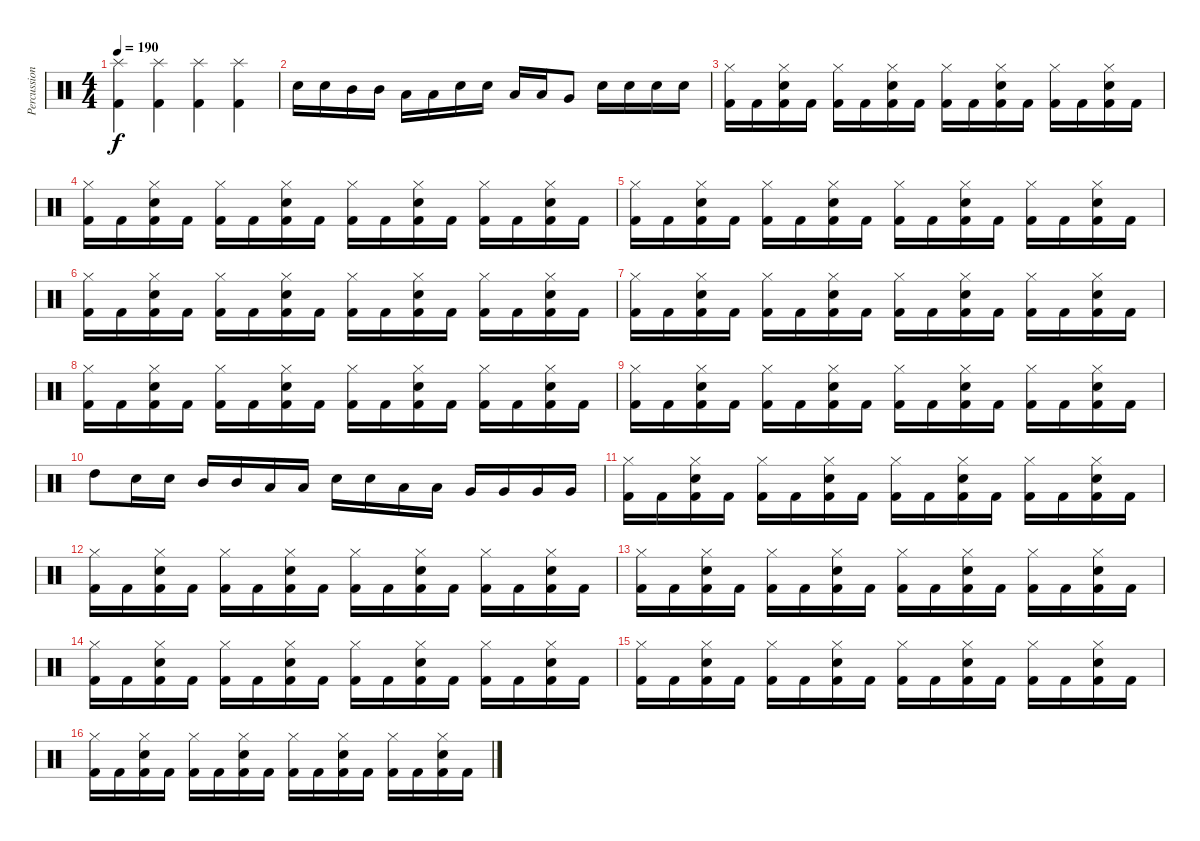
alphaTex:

\track ("Percussion" "Percussion") {instrument percussion}
\staff {score}
\articulation defaults
\ts (4 4)
\tempo 190
\clef neutral
\ks c
("Splash (hit)" "Kick (hit) 2").4{dy f} ("Splash (hit)" "Kick (hit) 2").4 ("Splash (hit)" "Kick (hit) 2").4 ("Splash (hit)" "Kick (hit) 2").4 |
"Electric Snare (hit)".16 "Electric Snare (hit)".16 "Mid Tom (hit)".16 "Mid Tom (hit)".16 "Low Tom (hit)".16 "Low Tom (hit)".16 "Electric Snare (hit)".16 "Electric Snare (hit)".16 "Low Tom (hit)".16 "Low Tom (hit)".16 "Very Low Tom (hit)".8 "Electric Snare (hit)".16 "Electric Snare (hit)".16 "Electric Snare (hit)".16 "Electric Snare (hit)".16 |
("Hi-Hat (closed)" "Kick (hit) 2").16 "Kick (hit) 2".16 ("Hi-Hat (closed)" "Electric Snare (hit)" "Kick (hit) 2").16 "Kick (hit) 2".16 ("Hi-Hat (closed)" "Kick (hit) 2").16 "Kick (hit) 2".16 ("Hi-Hat (closed)" "Electric Snare (hit)" "Kick (hit) 2").16 "Kick (hit) 2".16 ("Hi-Hat (closed)" "Kick (hit) 2").16 "Kick (hit) 2".16 ("Hi-Hat (closed)" "Electric Snare (hit)" "Kick (hit) 2").16 "Kick (hit) 2".16 ("Hi-Hat (closed)" "Kick (hit) 2").16 "Kick (hit) 2".16 ("Hi-Hat (closed)" "Electric Snare (hit)" "Kick (hit) 2").16 "Kick (hit) 2".16 |
("Hi-Hat (closed)" "Kick (hit) 2").16 "Kick (hit) 2".16 ("Hi-Hat (closed)" "Electric Snare (hit)" "Kick (hit) 2").16 "Kick (hit) 2".16 ("Hi-Hat (closed)" "Kick (hit) 2").16 "Kick (hit) 2".16 ("Hi-Hat (closed)" "Electric Snare (hit)" "Kick (hit) 2").16 "Kick (hit) 2".16 ("Hi-Hat (closed)" "Kick (hit) 2").16 "Kick (hit) 2".16 ("Hi-Hat (closed)" "Electric Snare (hit)" "Kick (hit) 2").16 "Kick (hit) 2".16 ("Hi-Hat (closed)" "Kick (hit) 2").16 "Kick (hit) 2".16 ("Hi-Hat (closed)" "Electric Snare (hit)" "Kick (hit) 2").16 "Kick (hit) 2".16 |
("Hi-Hat (closed)" "Kick (hit) 2").16 "Kick (hit) 2".16 ("Hi-Hat (closed)" "Electric Snare (hit)" "Kick (hit) 2").16 "Kick (hit) 2".16 ("Hi-Hat (closed)" "Kick (hit) 2").16 "Kick (hit) 2".16 ("Hi-Hat (closed)" "Electric Snare (hit)" "Kick (hit) 2").16 "Kick (hit) 2".16 ("Hi-Hat (closed)" "Kick (hit) 2").16 "Kick (hit) 2".16 ("Hi-Hat (closed)" "Electric Snare (hit)" "Kick (hit) 2").16 "Kick (hit) 2".16 ("Hi-Hat (closed)" "Kick (hit) 2").16 "Kick (hit) 2".16 ("Hi-Hat (closed)" "Electric Snare (hit)" "Kick (hit) 2").16 "Kick (hit) 2".16 |
("Hi-Hat (closed)" "Kick (hit) 2").16 "Kick (hit) 2".16 ("Hi-Hat (closed)" "Electric Snare (hit)" "Kick (hit) 2").16 "Kick (hit) 2".16 ("Hi-Hat (closed)" "Kick (hit) 2").16 "Kick (hit) 2".16 ("Hi-Hat (closed)" "Electric Snare (hit)" "Kick (hit) 2").16 "Kick (hit) 2".16 ("Hi-Hat (closed)" "Kick (hit) 2").16 "Kick (hit) 2".16 ("Hi-Hat (closed)" "Electric Snare (hit)" "Kick (hit) 2").16 "Kick (hit) 2".16 ("Hi-Hat (closed)" "Kick (hit) 2").16 "Kick (hit) 2".16 ("Hi-Hat (closed)" "Electric Snare (hit)" "Kick (hit) 2").16 "Kick (hit) 2".16 |
("Hi-Hat (closed)" "Kick (hit) 2").16 "Kick (hit) 2".16 ("Hi-Hat (closed)" "Electric Snare (hit)" "Kick (hit) 2").16 "Kick (hit) 2".16 ("Hi-Hat (closed)" "Kick (hit) 2").16 "Kick (hit) 2".16 ("Hi-Hat (closed)" "Electric Snare (hit)" "Kick (hit) 2").16 "Kick (hit) 2".16 ("Hi-Hat (closed)" "Kick (hit) 2").16 "Kick (hit) 2".16 ("Hi-Hat (closed)" "Electric Snare (hit)" "Kick (hit) 2").16 "Kick (hit) 2".16 ("Hi-Hat (closed)" "Kick (hit) 2").16 "Kick (hit) 2".16 ("Hi-Hat (closed)" "Electric Snare (hit)" "Kick (hit) 2").16 "Kick (hit) 2".16 |
("Hi-Hat (closed)" "Kick (hit) 2").16 "Kick (hit) 2".16 ("Hi-Hat (closed)" "Electric Snare (hit)" "Kick (hit) 2").16 "Kick (hit) 2".16 ("Hi-Hat (closed)" "Kick (hit) 2").16 "Kick (hit) 2".16 ("Hi-Hat (closed)" "Electric Snare (hit)" "Kick (hit) 2").16 "Kick (hit) 2".16 ("Hi-Hat (closed)" "Kick (hit) 2").16 "Kick (hit) 2".16 ("Hi-Hat (closed)" "Electric Snare (hit)" "Kick (hit) 2").16 "Kick (hit) 2".16 ("Hi-Hat (closed)" "Kick (hit) 2").16 "Kick (hit) 2".16 ("Hi-Hat (closed)" "Electric Snare (hit)" "Kick (hit) 2").16 "Kick (hit) 2".16 |
("Hi-Hat (closed)" "Kick (hit) 2").16 "Kick (hit) 2".16 ("Hi-Hat (closed)" "Electric Snare (hit)" "Kick (hit) 2").16 "Kick (hit) 2".16 ("Hi-Hat (closed)" "Kick (hit) 2").16 "Kick (hit) 2".16 ("Hi-Hat (closed)" "Electric Snare (hit)" "Kick (hit) 2").16 "Kick (hit) 2".16 ("Hi-Hat (closed)" "Kick (hit) 2").16 "Kick (hit) 2".16 ("Hi-Hat (closed)" "Electric Snare (hit)" "Kick (hit) 2").16 "Kick (hit) 2".16 ("Hi-Hat (closed)" "Kick (hit) 2").16 "Kick (hit) 2".16 ("Hi-Hat (closed)" "Electric Snare (hit)" "Kick (hit) 2").16 "Kick (hit) 2".16 |
"High Tom (hit)".8 "Electric Snare (hit)".16 "Electric Snare (hit)".16 "Mid Tom (hit)".16 "Mid Tom (hit)".16 "Low Tom (hit)".16 "Low Tom (hit)".16 "Electric Snare (hit)".16 "Electric Snare (hit)".16 "Low Tom (hit)".16 "Low Tom (hit)".16 "Very Low Tom (hit)".16 "Very Low Tom (hit)".16 "Very Low Tom (hit)".16 "Very Low Tom (hit)".16 |
("Hi-Hat (closed)" "Kick (hit) 2").16 "Kick (hit) 2".16 ("Hi-Hat (closed)" "Electric Snare (hit)" "Kick (hit) 2").16 "Kick (hit) 2".16 ("Hi-Hat (closed)" "Kick (hit) 2").16 "Kick (hit) 2".16 ("Hi-Hat (closed)" "Electric Snare (hit)" "Kick (hit) 2").16 "Kick (hit) 2".16 ("Hi-Hat (closed)" "Kick (hit) 2").16 "Kick (hit) 2".16 ("Hi-Hat (closed)" "Electric Snare (hit)" "Kick (hit) 2").16 "Kick (hit) 2".16 ("Hi-Hat (closed)" "Kick (hit) 2").16 "Kick (hit) 2".16 ("Hi-Hat (closed)" "Electric Snare (hit)" "Kick (hit) 2").16 "Kick (hit) 2".16 |
("Hi-Hat (closed)" "Kick (hit) 2").16 "Kick (hit) 2".16 ("Hi-Hat (closed)" "Electric Snare (hit)" "Kick (hit) 2").16 "Kick (hit) 2".16 ("Hi-Hat (closed)" "Kick (hit) 2").16 "Kick (hit) 2".16 ("Hi-Hat (closed)" "Electric Snare (hit)" "Kick (hit) 2").16 "Kick (hit) 2".16 ("Hi-Hat (closed)" "Kick (hit) 2").16 "Kick (hit) 2".16 ("Hi-Hat (closed)" "Electric Snare (hit)" "Kick (hit) 2").16 "Kick (hit) 2".16 ("Hi-Hat (closed)" "Kick (hit) 2").16 "Kick (hit) 2".16 ("Hi-Hat (closed)" "Electric Snare (hit)" "Kick (hit) 2").16 "Kick (hit) 2".16 |
("Hi-Hat (closed)" "Kick (hit) 2").16 "Kick (hit) 2".16 ("Hi-Hat (closed)" "Electric Snare (hit)" "Kick (hit) 2").16 "Kick (hit) 2".16 ("Hi-Hat (closed)" "Kick (hit) 2").16 "Kick (hit) 2".16 ("Hi-Hat (closed)" "Electric Snare (hit)" "Kick (hit) 2").16 "Kick (hit) 2".16 ("Hi-Hat (closed)" "Kick (hit) 2").16 "Kick (hit) 2".16 ("Hi-Hat (closed)" "Electric Snare (hit)" "Kick (hit) 2").16 "Kick (hit) 2".16 ("Hi-Hat (closed)" "Kick (hit) 2").16 "Kick (hit) 2".16 ("Hi-Hat (closed)" "Electric Snare (hit)" "Kick (hit) 2").16 "Kick (hit) 2".16 |
("Hi-Hat (closed)" "Kick (hit) 2").16 "Kick (hit) 2".16 ("Hi-Hat (closed)" "Electric Snare (hit)" "Kick (hit) 2").16 "Kick (hit) 2".16 ("Hi-Hat (closed)" "Kick (hit) 2").16 "Kick (hit) 2".16 ("Hi-Hat (closed)" "Electric Snare (hit)" "Kick (hit) 2").16 "Kick (hit) 2".16 ("Hi-Hat (closed)" "Kick (hit) 2").16 "Kick (hit) 2".16 ("Hi-Hat (closed)" "Electric Snare (hit)" "Kick (hit) 2").16 "Kick (hit) 2".16 ("Hi-Hat (closed)" "Kick (hit) 2").16 "Kick (hit) 2".16 ("Hi-Hat (closed)" "Electric Snare (hit)" "Kick (hit) 2").16 "Kick (hit) 2".16 |
("Hi-Hat (closed)" "Kick (hit) 2").16 "Kick (hit) 2".16 ("Hi-Hat (closed)" "Electric Snare (hit)" "Kick (hit) 2").16 "Kick (hit) 2".16 ("Hi-Hat (closed)" "Kick (hit) 2").16 "Kick (hit) 2".16 ("Hi-Hat (closed)" "Electric Snare (hit)" "Kick (hit) 2").16 "Kick (hit) 2".16 ("Hi-Hat (closed)" "Kick (hit) 2").16 "Kick (hit) 2".16 ("Hi-Hat (closed)" "Electric Snare (hit)" "Kick (hit) 2").16 "Kick (hit) 2".16 ("Hi-Hat (closed)" "Kick (hit) 2").16 "Kick (hit) 2".16 ("Hi-Hat (closed)" "Electric Snare (hit)" "Kick (hit) 2").16 "Kick (hit) 2".16 |
("Hi-Hat (closed)" "Kick (hit) 2").16 "Kick (hit) 2".16 ("Hi-Hat (closed)" "Electric Snare (hit)" "Kick (hit) 2").16 "Kick (hit) 2".16 ("Hi-Hat (closed)" "Kick (hit) 2").16 "Kick (hit) 2".16 ("Hi-Hat (closed)" "Electric Snare (hit)" "Kick (hit) 2").16 "Kick (hit) 2".16 ("Hi-Hat (closed)" "Kick (hit) 2").16 "Kick (hit) 2".16 ("Hi-Hat (closed)" "Electric Snare (hit)" "Kick (hit) 2").16 "Kick (hit) 2".16 ("Hi-Hat (closed)" "Kick (hit) 2").16 "Kick (hit) 2".16 ("Hi-Hat (closed)" "Electric Snare (hit)" "Kick (hit) 2").16 "Kick (hit) 2".16
